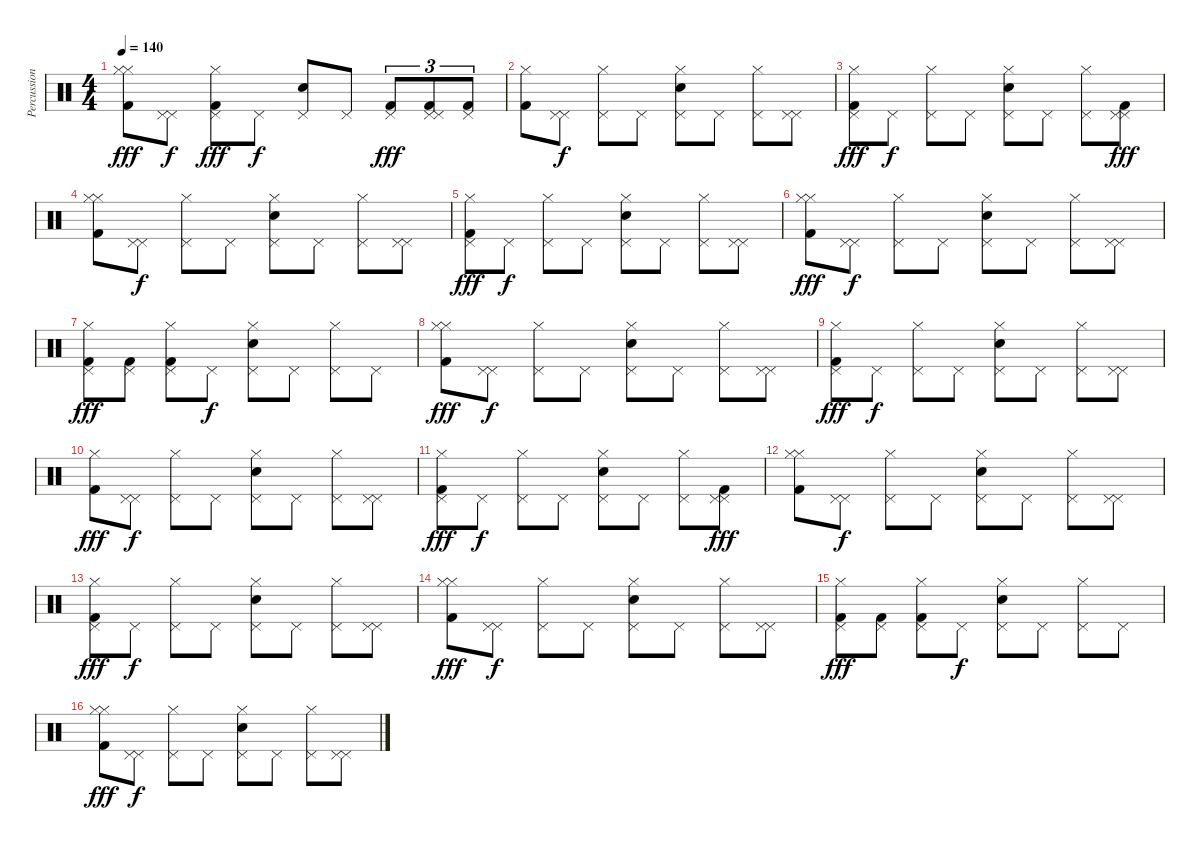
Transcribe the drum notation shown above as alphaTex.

\track ("Percussion" "Percussion") {instrument percussion}
\staff {score}
\articulation defaults
\ts (4 4)
\tempo 140
\clef neutral
\ks c
("Hi-Hat (closed)" "Hi-Hat (closed)" "Kick (hit) 2").8{dy fff} ("Pedal Hi-Hat (hit)" "Pedal Hi-Hat (hit)").8{dy f} ("Pedal Hi-Hat (hit)" "Hi-Hat (closed)" "Kick (hit) 2").8{dy fff} "Pedal Hi-Hat (hit)".8{dy f} ("Pedal Hi-Hat (hit)" "Electric Snare (hit)").8 "Pedal Hi-Hat (hit)".8 ("Pedal Hi-Hat (hit)" "Kick (hit) 2").8{tu (3 2) dy fff} ("Pedal Hi-Hat (hit)" "Pedal Hi-Hat (hit)" "Kick (hit) 2").8{tu (3 2)} ("Pedal Hi-Hat (hit)" "Kick (hit) 2").8{tu (3 2)} |
("Hi-Hat (closed)" "Kick (hit) 2").8 ("Pedal Hi-Hat (hit)" "Pedal Hi-Hat (hit)").8{dy f} ("Pedal Hi-Hat (hit)" "Hi-Hat (closed)").8 "Pedal Hi-Hat (hit)".8 ("Pedal Hi-Hat (hit)" "Hi-Hat (closed)" "Electric Snare (hit)").8 "Pedal Hi-Hat (hit)".8 ("Pedal Hi-Hat (hit)" "Hi-Hat (closed)").8 ("Pedal Hi-Hat (hit)" "Pedal Hi-Hat (hit)").8 |
("Pedal Hi-Hat (hit)" "Hi-Hat (closed)" "Kick (hit) 2").8{dy fff} "Pedal Hi-Hat (hit)".8{dy f} ("Pedal Hi-Hat (hit)" "Hi-Hat (closed)").8 "Pedal Hi-Hat (hit)".8 ("Pedal Hi-Hat (hit)" "Hi-Hat (closed)" "Electric Snare (hit)").8 "Pedal Hi-Hat (hit)".8 ("Pedal Hi-Hat (hit)" "Hi-Hat (closed)").8 ("Pedal Hi-Hat (hit)" "Pedal Hi-Hat (hit)" "Kick (hit) 2").8{dy fff} |
("Hi-Hat (closed)" "Hi-Hat (closed)" "Kick (hit) 2").8 ("Pedal Hi-Hat (hit)" "Pedal Hi-Hat (hit)").8{dy f} ("Pedal Hi-Hat (hit)" "Hi-Hat (closed)").8 "Pedal Hi-Hat (hit)".8 ("Pedal Hi-Hat (hit)" "Hi-Hat (closed)" "Electric Snare (hit)").8 "Pedal Hi-Hat (hit)".8 ("Pedal Hi-Hat (hit)" "Hi-Hat (closed)").8 ("Pedal Hi-Hat (hit)" "Pedal Hi-Hat (hit)").8 |
("Pedal Hi-Hat (hit)" "Hi-Hat (closed)" "Kick (hit) 2").8{dy fff} "Pedal Hi-Hat (hit)".8{dy f} ("Pedal Hi-Hat (hit)" "Hi-Hat (closed)").8 "Pedal Hi-Hat (hit)".8 ("Pedal Hi-Hat (hit)" "Hi-Hat (closed)" "Electric Snare (hit)").8 "Pedal Hi-Hat (hit)".8 ("Pedal Hi-Hat (hit)" "Hi-Hat (closed)").8 ("Pedal Hi-Hat (hit)" "Pedal Hi-Hat (hit)").8 |
("Hi-Hat (closed)" "Hi-Hat (closed)" "Kick (hit) 2").8{dy fff} ("Pedal Hi-Hat (hit)" "Pedal Hi-Hat (hit)").8{dy f} ("Pedal Hi-Hat (hit)" "Hi-Hat (closed)").8 "Pedal Hi-Hat (hit)".8 ("Pedal Hi-Hat (hit)" "Hi-Hat (closed)" "Electric Snare (hit)").8 "Pedal Hi-Hat (hit)".8 ("Pedal Hi-Hat (hit)" "Hi-Hat (closed)").8 ("Pedal Hi-Hat (hit)" "Pedal Hi-Hat (hit)").8 |
("Pedal Hi-Hat (hit)" "Hi-Hat (closed)" "Kick (hit) 2").8{dy fff} ("Pedal Hi-Hat (hit)" "Kick (hit) 2").8 ("Pedal Hi-Hat (hit)" "Hi-Hat (closed)" "Kick (hit) 2").8 "Pedal Hi-Hat (hit)".8{dy f} ("Pedal Hi-Hat (hit)" "Hi-Hat (closed)" "Electric Snare (hit)").8 "Pedal Hi-Hat (hit)".8 ("Pedal Hi-Hat (hit)" "Hi-Hat (closed)").8 "Pedal Hi-Hat (hit)".8 |
("Hi-Hat (closed)" "Hi-Hat (closed)" "Kick (hit) 2").8{dy fff} ("Pedal Hi-Hat (hit)" "Pedal Hi-Hat (hit)").8{dy f} ("Pedal Hi-Hat (hit)" "Hi-Hat (closed)").8 "Pedal Hi-Hat (hit)".8 ("Pedal Hi-Hat (hit)" "Hi-Hat (closed)" "Electric Snare (hit)").8 "Pedal Hi-Hat (hit)".8 ("Pedal Hi-Hat (hit)" "Hi-Hat (closed)").8 ("Pedal Hi-Hat (hit)" "Pedal Hi-Hat (hit)").8 |
("Pedal Hi-Hat (hit)" "Hi-Hat (closed)" "Kick (hit) 2").8{dy fff} "Pedal Hi-Hat (hit)".8{dy f} ("Pedal Hi-Hat (hit)" "Hi-Hat (closed)").8 "Pedal Hi-Hat (hit)".8 ("Pedal Hi-Hat (hit)" "Hi-Hat (closed)" "Electric Snare (hit)").8 "Pedal Hi-Hat (hit)".8 ("Pedal Hi-Hat (hit)" "Hi-Hat (closed)").8 ("Pedal Hi-Hat (hit)" "Pedal Hi-Hat (hit)").8 |
("Hi-Hat (closed)" "Kick (hit) 2").8{dy fff} ("Pedal Hi-Hat (hit)" "Pedal Hi-Hat (hit)").8{dy f} ("Pedal Hi-Hat (hit)" "Hi-Hat (closed)").8 "Pedal Hi-Hat (hit)".8 ("Pedal Hi-Hat (hit)" "Hi-Hat (closed)" "Electric Snare (hit)").8 "Pedal Hi-Hat (hit)".8 ("Pedal Hi-Hat (hit)" "Hi-Hat (closed)").8 ("Pedal Hi-Hat (hit)" "Pedal Hi-Hat (hit)").8 |
("Pedal Hi-Hat (hit)" "Hi-Hat (closed)" "Kick (hit) 2").8{dy fff} "Pedal Hi-Hat (hit)".8{dy f} ("Pedal Hi-Hat (hit)" "Hi-Hat (closed)").8 "Pedal Hi-Hat (hit)".8 ("Pedal Hi-Hat (hit)" "Hi-Hat (closed)" "Electric Snare (hit)").8 "Pedal Hi-Hat (hit)".8 ("Pedal Hi-Hat (hit)" "Hi-Hat (closed)").8 ("Pedal Hi-Hat (hit)" "Pedal Hi-Hat (hit)" "Kick (hit) 2").8{dy fff} |
("Hi-Hat (closed)" "Hi-Hat (closed)" "Kick (hit) 2").8 ("Pedal Hi-Hat (hit)" "Pedal Hi-Hat (hit)").8{dy f} ("Pedal Hi-Hat (hit)" "Hi-Hat (closed)").8 "Pedal Hi-Hat (hit)".8 ("Pedal Hi-Hat (hit)" "Hi-Hat (closed)" "Electric Snare (hit)").8 "Pedal Hi-Hat (hit)".8 ("Pedal Hi-Hat (hit)" "Hi-Hat (closed)").8 ("Pedal Hi-Hat (hit)" "Pedal Hi-Hat (hit)").8 |
("Pedal Hi-Hat (hit)" "Hi-Hat (closed)" "Kick (hit) 2").8{dy fff} "Pedal Hi-Hat (hit)".8{dy f} ("Pedal Hi-Hat (hit)" "Hi-Hat (closed)").8 "Pedal Hi-Hat (hit)".8 ("Pedal Hi-Hat (hit)" "Hi-Hat (closed)" "Electric Snare (hit)").8 "Pedal Hi-Hat (hit)".8 ("Pedal Hi-Hat (hit)" "Hi-Hat (closed)").8 ("Pedal Hi-Hat (hit)" "Pedal Hi-Hat (hit)").8 |
("Hi-Hat (closed)" "Hi-Hat (closed)" "Kick (hit) 2").8{dy fff} ("Pedal Hi-Hat (hit)" "Pedal Hi-Hat (hit)").8{dy f} ("Pedal Hi-Hat (hit)" "Hi-Hat (closed)").8 "Pedal Hi-Hat (hit)".8 ("Pedal Hi-Hat (hit)" "Hi-Hat (closed)" "Electric Snare (hit)").8 "Pedal Hi-Hat (hit)".8 ("Pedal Hi-Hat (hit)" "Hi-Hat (closed)").8 ("Pedal Hi-Hat (hit)" "Pedal Hi-Hat (hit)").8 |
("Pedal Hi-Hat (hit)" "Hi-Hat (closed)" "Kick (hit) 2").8{dy fff} ("Pedal Hi-Hat (hit)" "Kick (hit) 2").8 ("Pedal Hi-Hat (hit)" "Hi-Hat (closed)" "Kick (hit) 2").8 "Pedal Hi-Hat (hit)".8{dy f} ("Pedal Hi-Hat (hit)" "Hi-Hat (closed)" "Electric Snare (hit)").8 "Pedal Hi-Hat (hit)".8 ("Pedal Hi-Hat (hit)" "Hi-Hat (closed)").8 "Pedal Hi-Hat (hit)".8 |
("Hi-Hat (closed)" "Hi-Hat (closed)" "Kick (hit) 2").8{dy fff} ("Pedal Hi-Hat (hit)" "Pedal Hi-Hat (hit)").8{dy f} ("Pedal Hi-Hat (hit)" "Hi-Hat (closed)").8 "Pedal Hi-Hat (hit)".8 ("Pedal Hi-Hat (hit)" "Hi-Hat (closed)" "Electric Snare (hit)").8 "Pedal Hi-Hat (hit)".8 ("Pedal Hi-Hat (hit)" "Hi-Hat (closed)").8 ("Pedal Hi-Hat (hit)" "Pedal Hi-Hat (hit)").8
